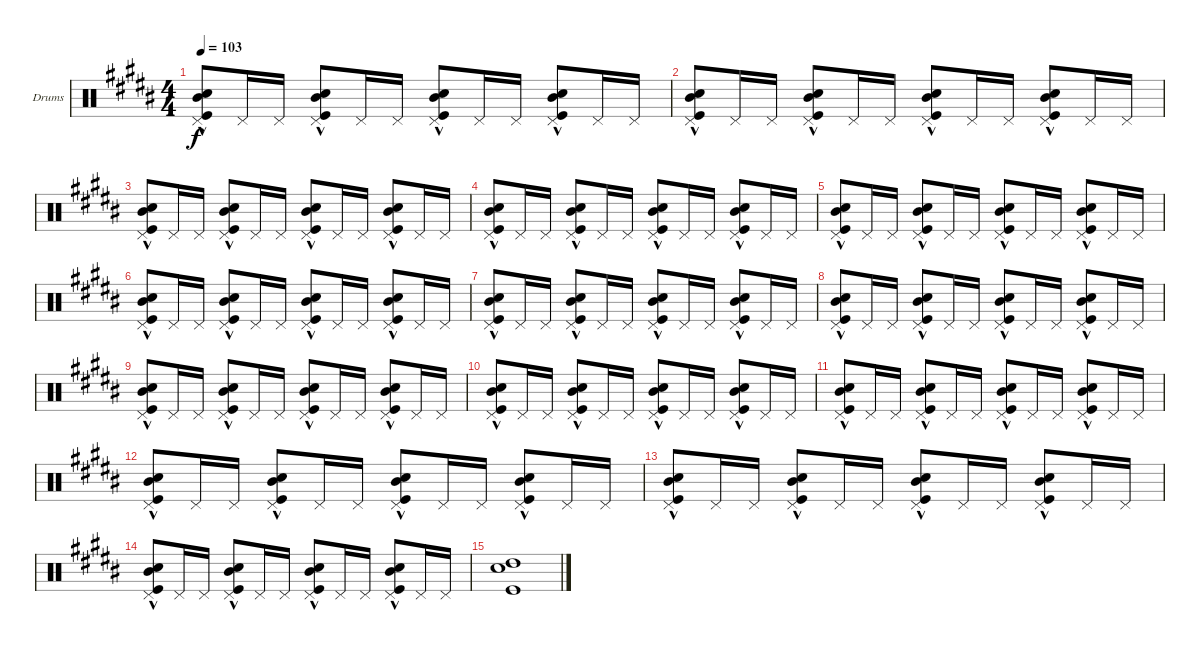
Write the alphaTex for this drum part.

\defaultSystemsLayout 4
\bracketExtendMode groupsimilarinstruments
\firstSystemTrackNameOrientation horizontal
\otherSystemsTrackNameOrientation horizontal
\track ("Drumkit" "Drums") {instrument percussion}
\staff {score}
\articulation defaults
\ts (4 4)
\tempo 103
\clef neutral
\ks b
("Snare (hit) 2" "Mid Tom (hit)"{hac} "Pedal Hi-Hat (hit)" "Kick (hit)"{hac}).8{dy f} "Pedal Hi-Hat (hit)".16 "Pedal Hi-Hat (hit)".16 ("Snare (hit) 2" "Mid Tom (hit)"{hac} "Pedal Hi-Hat (hit)" "Kick (hit)"{hac}).8 "Pedal Hi-Hat (hit)".16 "Pedal Hi-Hat (hit)".16 ("Snare (hit) 2" "Mid Tom (hit)"{hac} "Pedal Hi-Hat (hit)" "Kick (hit)"{hac}).8 "Pedal Hi-Hat (hit)".16 "Pedal Hi-Hat (hit)".16 ("Snare (hit) 2" "Mid Tom (hit)"{hac} "Pedal Hi-Hat (hit)" "Kick (hit)"{hac}).8 "Pedal Hi-Hat (hit)".16 "Pedal Hi-Hat (hit)".16 |
("Snare (hit) 2" "Mid Tom (hit)"{hac} "Pedal Hi-Hat (hit)" "Kick (hit)"{hac}).8 "Pedal Hi-Hat (hit)".16 "Pedal Hi-Hat (hit)".16 ("Snare (hit) 2" "Mid Tom (hit)"{hac} "Pedal Hi-Hat (hit)" "Kick (hit)"{hac}).8 "Pedal Hi-Hat (hit)".16 "Pedal Hi-Hat (hit)".16 ("Snare (hit) 2" "Mid Tom (hit)"{hac} "Pedal Hi-Hat (hit)" "Kick (hit)"{hac}).8 "Pedal Hi-Hat (hit)".16 "Pedal Hi-Hat (hit)".16 ("Snare (hit) 2" "Mid Tom (hit)"{hac} "Pedal Hi-Hat (hit)" "Kick (hit)"{hac}).8 "Pedal Hi-Hat (hit)".16 "Pedal Hi-Hat (hit)".16 |
("Snare (hit) 2" "Mid Tom (hit)"{hac} "Pedal Hi-Hat (hit)" "Kick (hit)"{hac}).8 "Pedal Hi-Hat (hit)".16 "Pedal Hi-Hat (hit)".16 ("Snare (hit) 2" "Mid Tom (hit)"{hac} "Pedal Hi-Hat (hit)" "Kick (hit)"{hac}).8 "Pedal Hi-Hat (hit)".16 "Pedal Hi-Hat (hit)".16 ("Snare (hit) 2" "Mid Tom (hit)"{hac} "Pedal Hi-Hat (hit)" "Kick (hit)"{hac}).8 "Pedal Hi-Hat (hit)".16 "Pedal Hi-Hat (hit)".16 ("Snare (hit) 2" "Mid Tom (hit)"{hac} "Pedal Hi-Hat (hit)" "Kick (hit)"{hac}).8 "Pedal Hi-Hat (hit)".16 "Pedal Hi-Hat (hit)".16 |
("Snare (hit) 2" "Mid Tom (hit)"{hac} "Pedal Hi-Hat (hit)" "Kick (hit)"{hac}).8 "Pedal Hi-Hat (hit)".16 "Pedal Hi-Hat (hit)".16 ("Snare (hit) 2" "Mid Tom (hit)"{hac} "Pedal Hi-Hat (hit)" "Kick (hit)"{hac}).8 "Pedal Hi-Hat (hit)".16 "Pedal Hi-Hat (hit)".16 ("Snare (hit) 2" "Mid Tom (hit)"{hac} "Pedal Hi-Hat (hit)" "Kick (hit)"{hac}).8 "Pedal Hi-Hat (hit)".16 "Pedal Hi-Hat (hit)".16 ("Snare (hit) 2" "Mid Tom (hit)"{hac} "Pedal Hi-Hat (hit)" "Kick (hit)"{hac}).8 "Pedal Hi-Hat (hit)".16 "Pedal Hi-Hat (hit)".16 |
("Snare (hit) 2" "Mid Tom (hit)"{hac} "Pedal Hi-Hat (hit)" "Kick (hit)"{hac}).8 "Pedal Hi-Hat (hit)".16 "Pedal Hi-Hat (hit)".16 ("Snare (hit) 2" "Mid Tom (hit)"{hac} "Pedal Hi-Hat (hit)" "Kick (hit)"{hac}).8 "Pedal Hi-Hat (hit)".16 "Pedal Hi-Hat (hit)".16 ("Snare (hit) 2" "Mid Tom (hit)"{hac} "Pedal Hi-Hat (hit)" "Kick (hit)"{hac}).8 "Pedal Hi-Hat (hit)".16 "Pedal Hi-Hat (hit)".16 ("Snare (hit) 2" "Mid Tom (hit)"{hac} "Pedal Hi-Hat (hit)" "Kick (hit)"{hac}).8 "Pedal Hi-Hat (hit)".16 "Pedal Hi-Hat (hit)".16 |
("Snare (hit) 2" "Mid Tom (hit)"{hac} "Pedal Hi-Hat (hit)" "Kick (hit)"{hac}).8 "Pedal Hi-Hat (hit)".16 "Pedal Hi-Hat (hit)".16 ("Snare (hit) 2" "Mid Tom (hit)"{hac} "Pedal Hi-Hat (hit)" "Kick (hit)"{hac}).8 "Pedal Hi-Hat (hit)".16 "Pedal Hi-Hat (hit)".16 ("Snare (hit) 2" "Mid Tom (hit)"{hac} "Pedal Hi-Hat (hit)" "Kick (hit)"{hac}).8 "Pedal Hi-Hat (hit)".16 "Pedal Hi-Hat (hit)".16 ("Snare (hit) 2" "Mid Tom (hit)"{hac} "Pedal Hi-Hat (hit)" "Kick (hit)"{hac}).8 "Pedal Hi-Hat (hit)".16 "Pedal Hi-Hat (hit)".16 |
("Snare (hit) 2" "Mid Tom (hit)"{hac} "Pedal Hi-Hat (hit)" "Kick (hit)"{hac}).8 "Pedal Hi-Hat (hit)".16 "Pedal Hi-Hat (hit)".16 ("Snare (hit) 2" "Mid Tom (hit)"{hac} "Pedal Hi-Hat (hit)" "Kick (hit)"{hac}).8 "Pedal Hi-Hat (hit)".16 "Pedal Hi-Hat (hit)".16 ("Snare (hit) 2" "Mid Tom (hit)"{hac} "Pedal Hi-Hat (hit)" "Kick (hit)"{hac}).8 "Pedal Hi-Hat (hit)".16 "Pedal Hi-Hat (hit)".16 ("Snare (hit) 2" "Mid Tom (hit)"{hac} "Pedal Hi-Hat (hit)" "Kick (hit)"{hac}).8 "Pedal Hi-Hat (hit)".16 "Pedal Hi-Hat (hit)".16 |
("Snare (hit) 2" "Mid Tom (hit)"{hac} "Pedal Hi-Hat (hit)" "Kick (hit)"{hac}).8 "Pedal Hi-Hat (hit)".16 "Pedal Hi-Hat (hit)".16 ("Snare (hit) 2" "Mid Tom (hit)"{hac} "Pedal Hi-Hat (hit)" "Kick (hit)"{hac}).8 "Pedal Hi-Hat (hit)".16 "Pedal Hi-Hat (hit)".16 ("Snare (hit) 2" "Mid Tom (hit)"{hac} "Pedal Hi-Hat (hit)" "Kick (hit)"{hac}).8 "Pedal Hi-Hat (hit)".16 "Pedal Hi-Hat (hit)".16 ("Snare (hit) 2" "Mid Tom (hit)"{hac} "Pedal Hi-Hat (hit)" "Kick (hit)"{hac}).8 "Pedal Hi-Hat (hit)".16 "Pedal Hi-Hat (hit)".16 |
("Snare (hit) 2" "Mid Tom (hit)"{hac} "Pedal Hi-Hat (hit)" "Kick (hit)"{hac}).8 "Pedal Hi-Hat (hit)".16 "Pedal Hi-Hat (hit)".16 ("Snare (hit) 2" "Mid Tom (hit)"{hac} "Pedal Hi-Hat (hit)" "Kick (hit)"{hac}).8 "Pedal Hi-Hat (hit)".16 "Pedal Hi-Hat (hit)".16 ("Snare (hit) 2" "Mid Tom (hit)"{hac} "Pedal Hi-Hat (hit)" "Kick (hit)"{hac}).8 "Pedal Hi-Hat (hit)".16 "Pedal Hi-Hat (hit)".16 ("Snare (hit) 2" "Mid Tom (hit)"{hac} "Pedal Hi-Hat (hit)" "Kick (hit)"{hac}).8 "Pedal Hi-Hat (hit)".16 "Pedal Hi-Hat (hit)".16 |
("Snare (hit) 2" "Mid Tom (hit)"{hac} "Pedal Hi-Hat (hit)" "Kick (hit)"{hac}).8 "Pedal Hi-Hat (hit)".16 "Pedal Hi-Hat (hit)".16 ("Snare (hit) 2" "Mid Tom (hit)"{hac} "Pedal Hi-Hat (hit)" "Kick (hit)"{hac}).8 "Pedal Hi-Hat (hit)".16 "Pedal Hi-Hat (hit)".16 ("Snare (hit) 2" "Mid Tom (hit)"{hac} "Pedal Hi-Hat (hit)" "Kick (hit)"{hac}).8 "Pedal Hi-Hat (hit)".16 "Pedal Hi-Hat (hit)".16 ("Snare (hit) 2" "Mid Tom (hit)"{hac} "Pedal Hi-Hat (hit)" "Kick (hit)"{hac}).8 "Pedal Hi-Hat (hit)".16 "Pedal Hi-Hat (hit)".16 |
("Snare (hit) 2" "Mid Tom (hit)"{hac} "Pedal Hi-Hat (hit)" "Kick (hit)"{hac}).8 "Pedal Hi-Hat (hit)".16 "Pedal Hi-Hat (hit)".16 ("Snare (hit) 2" "Mid Tom (hit)"{hac} "Pedal Hi-Hat (hit)" "Kick (hit)"{hac}).8 "Pedal Hi-Hat (hit)".16 "Pedal Hi-Hat (hit)".16 ("Snare (hit) 2" "Mid Tom (hit)"{hac} "Pedal Hi-Hat (hit)" "Kick (hit)"{hac}).8 "Pedal Hi-Hat (hit)".16 "Pedal Hi-Hat (hit)".16 ("Snare (hit) 2" "Mid Tom (hit)"{hac} "Pedal Hi-Hat (hit)" "Kick (hit)"{hac}).8 "Pedal Hi-Hat (hit)".16 "Pedal Hi-Hat (hit)".16 |
("Snare (hit) 2" "Mid Tom (hit)"{hac} "Pedal Hi-Hat (hit)" "Kick (hit)"{hac}).8 "Pedal Hi-Hat (hit)".16 "Pedal Hi-Hat (hit)".16 ("Snare (hit) 2" "Mid Tom (hit)"{hac} "Pedal Hi-Hat (hit)" "Kick (hit)"{hac}).8 "Pedal Hi-Hat (hit)".16 "Pedal Hi-Hat (hit)".16 ("Snare (hit) 2" "Mid Tom (hit)"{hac} "Pedal Hi-Hat (hit)" "Kick (hit)"{hac}).8 "Pedal Hi-Hat (hit)".16 "Pedal Hi-Hat (hit)".16 ("Snare (hit) 2" "Mid Tom (hit)"{hac} "Pedal Hi-Hat (hit)" "Kick (hit)"{hac}).8 "Pedal Hi-Hat (hit)".16 "Pedal Hi-Hat (hit)".16 |
("Snare (hit) 2" "Mid Tom (hit)"{hac} "Pedal Hi-Hat (hit)" "Kick (hit)"{hac}).8 "Pedal Hi-Hat (hit)".16 "Pedal Hi-Hat (hit)".16 ("Snare (hit) 2" "Mid Tom (hit)"{hac} "Pedal Hi-Hat (hit)" "Kick (hit)"{hac}).8 "Pedal Hi-Hat (hit)".16 "Pedal Hi-Hat (hit)".16 ("Snare (hit) 2" "Mid Tom (hit)"{hac} "Pedal Hi-Hat (hit)" "Kick (hit)"{hac}).8 "Pedal Hi-Hat (hit)".16 "Pedal Hi-Hat (hit)".16 ("Snare (hit) 2" "Mid Tom (hit)"{hac} "Pedal Hi-Hat (hit)" "Kick (hit)"{hac}).8 "Pedal Hi-Hat (hit)".16 "Pedal Hi-Hat (hit)".16 |
("Snare (hit) 2" "Mid Tom (hit)"{hac} "Pedal Hi-Hat (hit)" "Kick (hit)"{hac}).8 "Pedal Hi-Hat (hit)".16 "Pedal Hi-Hat (hit)".16 ("Snare (hit) 2" "Mid Tom (hit)"{hac} "Pedal Hi-Hat (hit)" "Kick (hit)"{hac}).8 "Pedal Hi-Hat (hit)".16 "Pedal Hi-Hat (hit)".16 ("Snare (hit) 2" "Mid Tom (hit)"{hac} "Pedal Hi-Hat (hit)" "Kick (hit)"{hac}).8 "Pedal Hi-Hat (hit)".16 "Pedal Hi-Hat (hit)".16 ("Snare (hit) 2" "Mid Tom (hit)"{hac} "Pedal Hi-Hat (hit)" "Kick (hit)"{hac}).8 "Pedal Hi-Hat (hit)".16 "Pedal Hi-Hat (hit)".16 |
("Kick (hit)" "Snare (hit) 2" "High Tom (hit)").1
